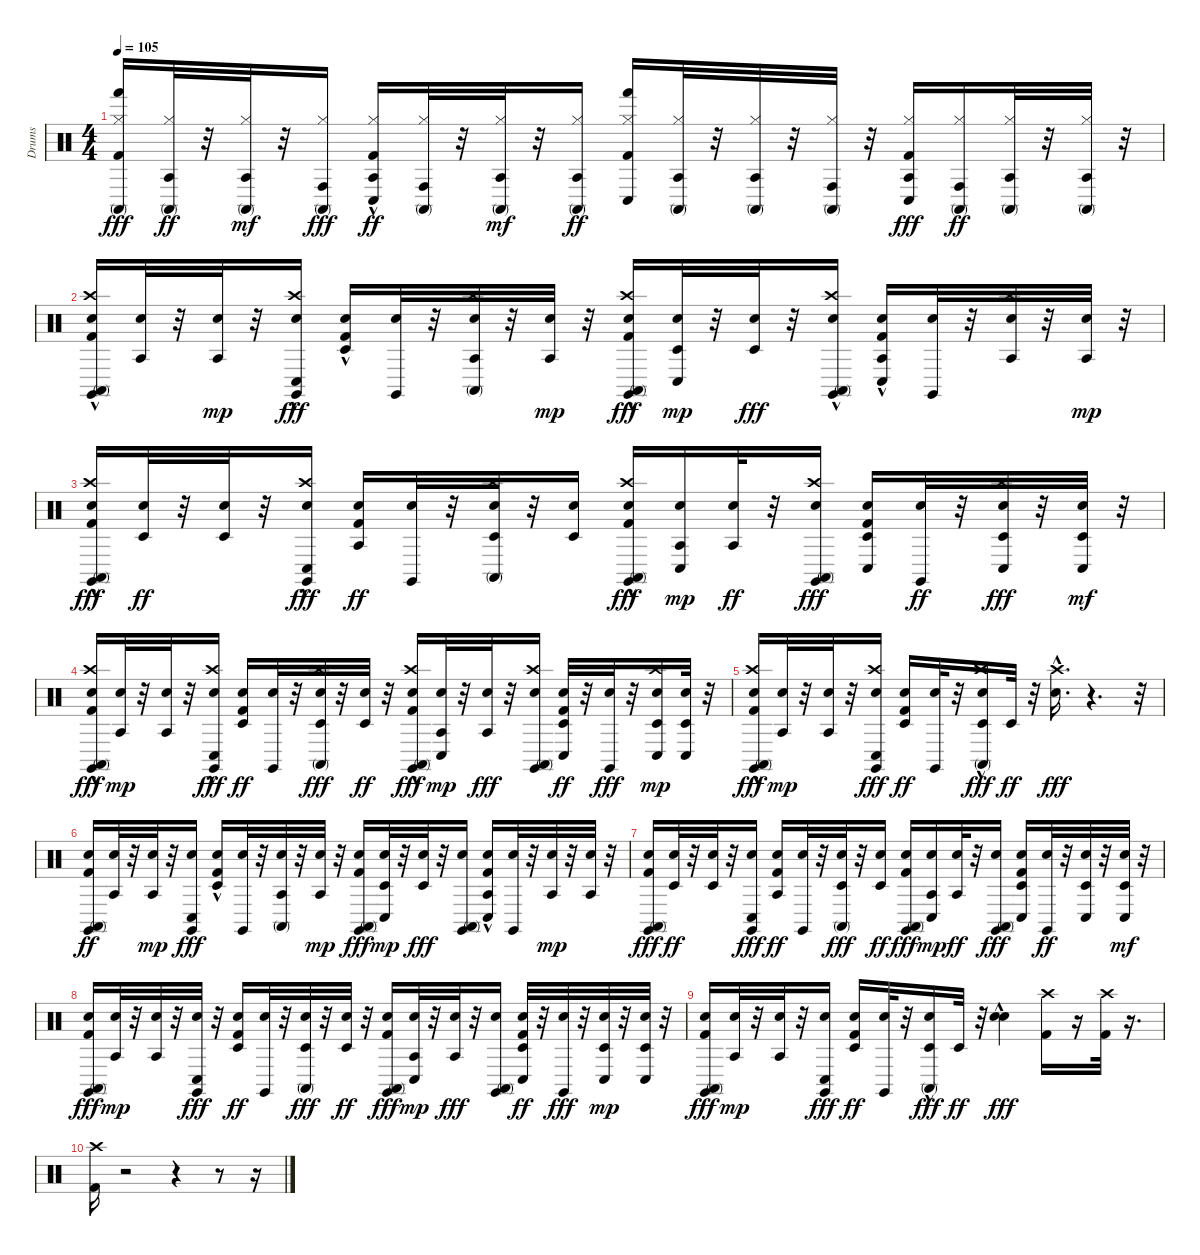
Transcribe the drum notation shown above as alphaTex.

\track ("Drums" "Drums") {instrument percussion}
\staff {score}
\articulation defaults
\ts (4 4)
\tempo 105
\clef neutral
\ks c
("Hand (hit)" "Conga high (mute)" "Hi-Hat (closed)" "Kick (hit) 2").16{dy fff} ("Agogo tow (hit)" "Conga high (mute)" "Hi-Hat (closed)").32{dy ff} r.32 ("Agogo tow (hit)" "Hi-Hat (closed)" "Conga high (mute)").32{dy mf} r.32 ("Conga high (mute)" "Hi-Hat (closed)" "Conga high (hit)").16{dy fff} ("Hi-Hat (closed)" "Kick (hit) 2"{hac} "Conga low (hit)" "Agogo tow (hit)").16{dy ff} ("Conga high (mute)" "Hi-Hat (closed)" "Conga high (hit)").32 r.32 ("Agogo tow (hit)" "Hi-Hat (closed)" "Conga high (mute)").32{dy mf} r.32 ("Agogo tow (hit)" "Conga high (mute)" "Hi-Hat (closed)").16{dy ff} ("Conga low (hit)" "Hi-Hat (closed)" "Kick (hit) 2" "Hand (hit)").16 ("Agogo tow (hit)" "Hi-Hat (closed)" "Conga high (mute)").32 r.32 ("Agogo tow (hit)" "Conga high (mute)" "Hi-Hat (closed)").32 r.32 ("Hi-Hat (closed)" "Conga high (mute)" "Conga high (hit)").32 r.32 ("Agogo tow (hit)" "Conga low (hit)" "Hi-Hat (closed)" "Kick (hit) 2").16{dy fff} ("Conga high (mute)" "Hi-Hat (closed)" "Conga high (hit)").16{dy ff} ("Agogo tow (hit)" "Hi-Hat (closed)" "Conga high (mute)").32 r.32 ("Agogo tow (hit)" "Conga high (mute)" "Hi-Hat (closed)").32 r.32 |
("Crash high (hit)"{hac} "Conga high (mute)" "Snare (hit) 2" "Kick (hit) 2" "Claves (hit)").16 ("Snare (hit) 2" "Agogo tow (hit)").32 r.32 ("Snare (hit) 2" "Agogo tow (hit)").32{dy mp} r.32 ("Crash high (hit)"{hac} "Snare (hit) 2" "Conga low (hit)" "Claves (hit)").16{dy fff} ("Timbale low (hit)" "Snare (hit) 2" "Kick (hit) 2"{hac}).16 ("Snare (hit) 2" "Claves (hit)").32 r.32 ("Crash high (hit)" "Conga high (mute)" "Agogo tow (hit)" "Snare (hit) 2").32 r.32 ("Agogo tow (hit)" "Snare (hit) 2").32{dy mp} r.32 ("Snare (hit) 2" "Kick (hit) 2" "Conga high (mute)" "Crash high (hit)"{hac} "Claves (hit)").16{dy fff} ("Snare (hit) 2" "Timbale low (hit)" "Conga low (hit)").32{dy mp} r.32 ("Timbale low (hit)" "Snare (hit) 2").32{dy fff} r.32 ("Conga high (mute)" "Snare (hit) 2" "Crash high (hit)"{hac} "Claves (hit)").16 ("Conga low (hit)"{hac} "Agogo tow (hit)" "Snare (hit) 2" "Kick (hit) 2").16 ("Snare (hit) 2" "Claves (hit)").32 r.32 ("Agogo tow (hit)" "Snare (hit) 2" "Crash high (hit)").32 r.32 ("Agogo tow (hit)" "Snare (hit) 2").32{dy mp} r.32 |
("Conga high (mute)" "Snare (hit) 2" "Kick (hit) 2" "Crash high (hit)"{hac} "Claves (hit)").16{dy fff} ("Snare (hit) 2" "Timbale low (hit)").32{dy ff} r.32 ("Snare (hit) 2" "Timbale low (hit)").32 r.32 ("Conga low (hit)" "Snare (hit) 2" "Crash high (hit)"{hac} "Claves (hit)").16{dy fff} ("Snare (hit) 2" "Kick (hit) 2" "Agogo tow (hit)").16{dy ff} ("Snare (hit) 2" "Claves (hit)").32 r.32 ("Conga high (mute)" "Timbale low (hit)" "Snare (hit) 2" "Crash high (hit)").32 r.32 ("Snare (hit) 2" "Timbale low (hit)").16 ("Conga high (mute)" "Snare (hit) 2" "Kick (hit) 2" "Crash high (hit)"{hac} "Claves (hit)").16{dy fff} ("Conga low (hit)" "Agogo tow (hit)" "Snare (hit) 2").16{dy mp} ("Snare (hit) 2" "Agogo tow (hit)").32{dy ff} r.32 ("Conga high (mute)" "Snare (hit) 2" "Crash high (hit)" "Claves (hit)").16{dy fff} ("Timbale low (hit)" "Snare (hit) 2" "Kick (hit) 2" "Conga low (hit)").16 ("Snare (hit) 2" "Claves (hit)").32{dy ff} r.32 ("Timbale low (hit)" "Snare (hit) 2" "Conga low (hit)" "Crash high (hit)").32{dy fff} r.32 ("Timbale low (hit)" "Snare (hit) 2" "Conga low (hit)").32{dy mf} r.32 |
("Kick (hit) 2" "Snare (hit) 2" "Conga high (mute)" "Crash high (hit)"{hac} "Claves (hit)").16{dy fff} ("Agogo tow (hit)" "Snare (hit) 2").32{dy mp} r.32 ("Agogo tow (hit)" "Snare (hit) 2").32 r.32 ("Conga low (hit)" "Snare (hit) 2" "Crash high (hit)"{hac} "Claves (hit)").16{dy fff} ("Snare (hit) 2" "Kick (hit) 2" "Timbale low (hit)").16{dy ff} ("Snare (hit) 2" "Claves (hit)").32 r.32 ("Crash high (hit)" "Conga high (mute)" "Timbale low (hit)" "Snare (hit) 2").32{dy fff} r.32 ("Snare (hit) 2" "Timbale low (hit)").32{dy ff} r.32 ("Conga high (mute)" "Snare (hit) 2" "Kick (hit) 2" "Crash high (hit)"{hac} "Claves (hit)").16{dy fff} ("Conga low (hit)" "Agogo tow (hit)" "Snare (hit) 2").32{dy mp} r.32 ("Agogo tow (hit)" "Snare (hit) 2").32{dy fff} r.32 ("Conga high (mute)" "Snare (hit) 2" "Crash high (hit)" "Claves (hit)").16 ("Kick (hit) 2" "Snare (hit) 2" "Timbale low (hit)" "Conga low (hit)").32{dy ff} r.32 ("Snare (hit) 2" "Claves (hit)").32{dy fff} r.32 ("Crash high (hit)" "Timbale low (hit)" "Snare (hit) 2" "Conga low (hit)").16{dy mp} ("Conga low (hit)" "Timbale low (hit)" "Snare (hit) 2").32 r.32 |
("Kick (hit) 2" "Snare (hit) 2" "Conga high (mute)" "Crash high (hit)"{hac} "Claves (hit)").16{dy fff} ("Agogo tow (hit)" "Snare (hit) 2").32{dy mp} r.32 ("Agogo tow (hit)" "Snare (hit) 2").32 r.32 ("Conga low (hit)" "Snare (hit) 2" "Crash high (hit)" "Claves (hit)").16{dy fff} ("Snare (hit) 2" "Kick (hit) 2" "Timbale low (hit)").16{dy ff} ("Snare (hit) 2" "Claves (hit)").32 r.32 ("Crash high (hit)" "Conga high (mute)" "Timbale low (hit)" "Snare (hit) 2"{hac}).16{dy fff} "Timbale low (hit)".32{dy ff} r.32 ("Crash high (hit)" "Snare (hit) 2"{hac}).16{d dy fff} r.4{d} r.32 |
("Conga high (mute)" "Snare (hit) 2" "Kick (hit) 2" "Claves (hit)").16{dy ff} ("Snare (hit) 2" "Agogo tow (hit)").32 r.32 ("Snare (hit) 2" "Agogo tow (hit)").32{dy mp} r.32 ("Snare (hit) 2" "Conga low (hit)" "Claves (hit)").16{dy fff} ("Timbale low (hit)" "Snare (hit) 2" "Kick (hit) 2"{hac}).16 ("Snare (hit) 2" "Claves (hit)").32 r.32 ("Conga high (mute)" "Agogo tow (hit)" "Snare (hit) 2").32 r.32 ("Agogo tow (hit)" "Snare (hit) 2").32{dy mp} r.32 ("Snare (hit) 2" "Kick (hit) 2" "Conga high (mute)" "Claves (hit)").16{dy fff} ("Snare (hit) 2" "Timbale low (hit)" "Conga low (hit)").32{dy mp} r.32 ("Timbale low (hit)" "Snare (hit) 2").32{dy fff} r.32 ("Conga high (mute)" "Snare (hit) 2" "Claves (hit)").16 ("Conga low (hit)"{hac} "Agogo tow (hit)" "Snare (hit) 2" "Kick (hit) 2").16 ("Snare (hit) 2" "Claves (hit)").32 r.32 ("Agogo tow (hit)" "Snare (hit) 2").32{dy mp} r.32 ("Agogo tow (hit)" "Snare (hit) 2").32 r.32 |
("Conga high (mute)" "Snare (hit) 2" "Kick (hit) 2" "Claves (hit)").16{dy fff} ("Snare (hit) 2" "Timbale low (hit)").32{dy ff} r.32 ("Snare (hit) 2" "Timbale low (hit)").32 r.32 ("Conga low (hit)" "Snare (hit) 2" "Claves (hit)").16{dy fff} ("Snare (hit) 2" "Kick (hit) 2" "Agogo tow (hit)").16{dy ff} ("Snare (hit) 2" "Claves (hit)").32 r.32 ("Conga high (mute)" "Timbale low (hit)" "Snare (hit) 2").32{dy fff} r.32 ("Snare (hit) 2" "Timbale low (hit)").16{dy ff} ("Conga high (mute)" "Snare (hit) 2" "Kick (hit) 2" "Claves (hit)").16{dy fff} ("Conga low (hit)" "Agogo tow (hit)" "Snare (hit) 2").16{dy mp} ("Snare (hit) 2" "Agogo tow (hit)").32{dy ff} r.32 ("Conga high (mute)" "Snare (hit) 2" "Claves (hit)").16{dy fff} ("Timbale low (hit)" "Snare (hit) 2" "Kick (hit) 2" "Conga low (hit)").16 ("Snare (hit) 2" "Claves (hit)").32{dy ff} r.32 ("Timbale low (hit)" "Snare (hit) 2" "Conga low (hit)").32 r.32 ("Timbale low (hit)" "Snare (hit) 2" "Conga low (hit)").32{dy mf} r.32 |
("Kick (hit) 2" "Snare (hit) 2" "Conga high (mute)" "Claves (hit)").16{dy fff} ("Agogo tow (hit)" "Snare (hit) 2").32{dy mp} r.32 ("Agogo tow (hit)" "Snare (hit) 2").32 r.32 ("Conga low (hit)" "Snare (hit) 2" "Claves (hit)").32{dy fff} r.32 ("Snare (hit) 2" "Kick (hit) 2" "Timbale low (hit)").16{dy ff} ("Snare (hit) 2" "Claves (hit)").32 r.32 ("Conga high (mute)" "Timbale low (hit)" "Snare (hit) 2").32{dy fff} r.32 ("Snare (hit) 2" "Timbale low (hit)").32{dy ff} r.32 ("Conga high (mute)" "Snare (hit) 2" "Kick (hit) 2" "Claves (hit)").16{dy fff} ("Conga low (hit)" "Agogo tow (hit)" "Snare (hit) 2").32{dy mp} r.32 ("Agogo tow (hit)" "Snare (hit) 2").32{dy fff} r.32 ("Conga high (mute)" "Snare (hit) 2" "Claves (hit)").16 ("Kick (hit) 2" "Snare (hit) 2" "Timbale low (hit)" "Conga low (hit)").32{dy ff} r.32 ("Snare (hit) 2" "Claves (hit)").32{dy fff} r.32 ("Timbale low (hit)" "Snare (hit) 2" "Conga low (hit)").32{dy mp} r.32 ("Conga low (hit)" "Timbale low (hit)" "Snare (hit) 2").32 r.32 |
("Kick (hit) 2" "Snare (hit) 2" "Conga high (mute)" "Claves (hit)").16{dy fff} ("Agogo tow (hit)" "Snare (hit) 2").32{dy mp} r.32 ("Agogo tow (hit)" "Snare (hit) 2").32 r.32 ("Conga low (hit)" "Snare (hit) 2" "Claves (hit)").16{dy fff} ("Snare (hit) 2" "Kick (hit) 2" "Timbale low (hit)").16{dy ff} ("Snare (hit) 2" "Claves (hit)").32 r.32 ("Conga high (mute)" "Timbale low (hit)" "Snare (hit) 2"{hac}).16{dy fff} "Timbale low (hit)".32{dy ff} r.32 ("Snare (hit) 2" "Snare (hit) 2"{hac}).4{dy fff} ("Kick (hit) 2" "Crash high (hit)").16 r.16 ("Kick (hit) 2" "Crash high (hit)").32 r.16{d} |
("Crash high (hit)" "Kick (hit) 2").16 r.2 r.4 r.8 r.16
